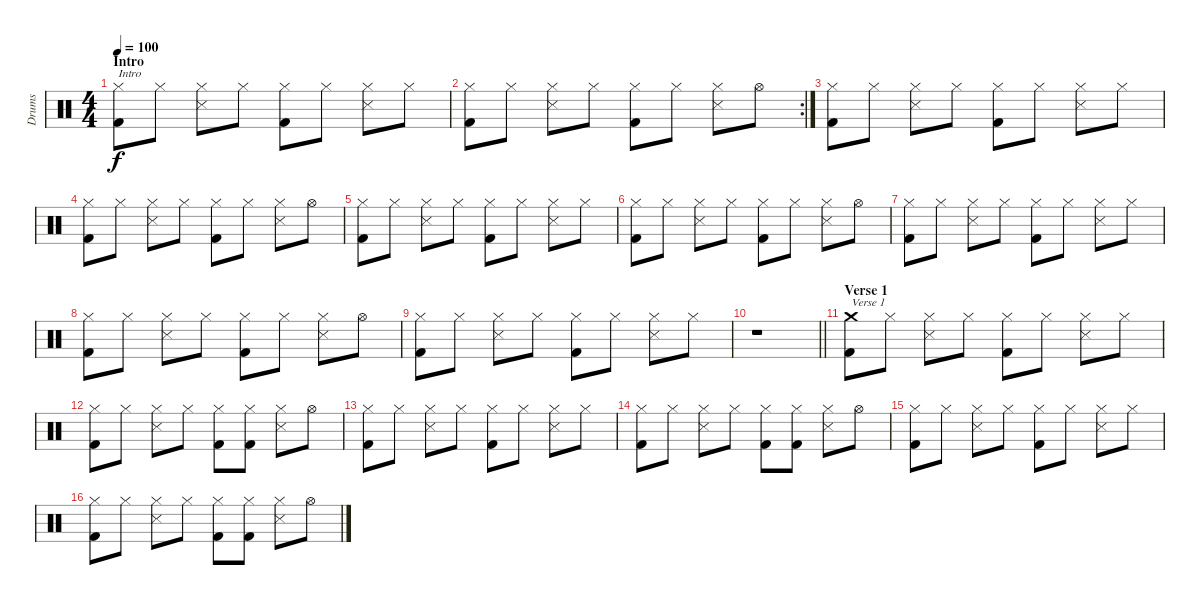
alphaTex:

\track ("Drums" "Drums") {instrument percussion}
\staff {score}
\articulation defaults
\ts (4 4)
\section ("" "Intro ")
\tempo 100
\clef neutral
\ks c
("Kick (hit) 2" "Hi-Hat (closed)").8{txt "Intro" dy f} "Hi-Hat (closed)".8 ("Snare (side stick) 3" "Hi-Hat (closed)").8 "Hi-Hat (closed)".8 ("Kick (hit) 2" "Hi-Hat (closed)").8 "Hi-Hat (closed)".8 ("Snare (side stick) 3" "Hi-Hat (closed)").8 "Hi-Hat (closed)".8 |
\rc 2
("Kick (hit) 2" "Hi-Hat (closed)").8 "Hi-Hat (closed)".8 ("Snare (side stick) 3" "Hi-Hat (closed)").8 "Hi-Hat (closed)".8 ("Kick (hit) 2" "Hi-Hat (closed)").8 "Hi-Hat (closed)".8 ("Snare (side stick) 3" "Hi-Hat (closed)").8 "Hi-Hat (open)".8 |
("Kick (hit) 2" "Hi-Hat (closed)").8 "Hi-Hat (closed)".8 ("Snare (side stick) 3" "Hi-Hat (closed)").8 "Hi-Hat (closed)".8 ("Kick (hit) 2" "Hi-Hat (closed)").8 "Hi-Hat (closed)".8 ("Snare (side stick) 3" "Hi-Hat (closed)").8 "Hi-Hat (closed)".8 |
("Kick (hit) 2" "Hi-Hat (closed)").8 "Hi-Hat (closed)".8 ("Snare (side stick) 3" "Hi-Hat (closed)").8 "Hi-Hat (closed)".8 ("Kick (hit) 2" "Hi-Hat (closed)").8 "Hi-Hat (closed)".8 ("Snare (side stick) 3" "Hi-Hat (closed)").8 "Hi-Hat (open)".8 |
("Kick (hit) 2" "Hi-Hat (closed)").8 "Hi-Hat (closed)".8 ("Snare (side stick) 3" "Hi-Hat (closed)").8 "Hi-Hat (closed)".8 ("Kick (hit) 2" "Hi-Hat (closed)").8 "Hi-Hat (closed)".8 ("Snare (side stick) 3" "Hi-Hat (closed)").8 "Hi-Hat (closed)".8 |
("Kick (hit) 2" "Hi-Hat (closed)").8 "Hi-Hat (closed)".8 ("Snare (side stick) 3" "Hi-Hat (closed)").8 "Hi-Hat (closed)".8 ("Kick (hit) 2" "Hi-Hat (closed)").8 "Hi-Hat (closed)".8 ("Snare (side stick) 3" "Hi-Hat (closed)").8 "Hi-Hat (open)".8 |
("Kick (hit) 2" "Hi-Hat (closed)").8 "Hi-Hat (closed)".8 ("Snare (side stick) 3" "Hi-Hat (closed)").8 "Hi-Hat (closed)".8 ("Kick (hit) 2" "Hi-Hat (closed)").8 "Hi-Hat (closed)".8 ("Snare (side stick) 3" "Hi-Hat (closed)").8 "Hi-Hat (closed)".8 |
("Kick (hit) 2" "Hi-Hat (closed)").8 "Hi-Hat (closed)".8 ("Snare (side stick) 3" "Hi-Hat (closed)").8 "Hi-Hat (closed)".8 ("Kick (hit) 2" "Hi-Hat (closed)").8 "Hi-Hat (closed)".8 ("Snare (side stick) 3" "Hi-Hat (closed)").8 "Hi-Hat (open)".8 |
("Kick (hit) 2" "Hi-Hat (closed)").8 "Hi-Hat (closed)".8 ("Snare (side stick) 3" "Hi-Hat (closed)").8 "Hi-Hat (closed)".8 ("Kick (hit) 2" "Hi-Hat (closed)").8 "Hi-Hat (closed)".8 ("Snare (side stick) 3" "Hi-Hat (closed)").8 "Hi-Hat (closed)".8 |
\barLineRight lightlight
r.1 |
\section ("" "Verse 1")
("Kick (hit) 2" "Crash medium (hit)").8{txt "Verse 1"} "Hi-Hat (closed)".8 ("Snare (side stick) 3" "Hi-Hat (closed)").8 "Hi-Hat (closed)".8 ("Kick (hit) 2" "Hi-Hat (closed)").8 "Hi-Hat (closed)".8 ("Snare (side stick) 3" "Hi-Hat (closed)").8 "Hi-Hat (closed)".8 |
("Kick (hit) 2" "Hi-Hat (closed)").8 "Hi-Hat (closed)".8 ("Snare (side stick) 3" "Hi-Hat (closed)").8 "Hi-Hat (closed)".8 ("Kick (hit) 2" "Hi-Hat (closed)").8 ("Kick (hit) 2" "Hi-Hat (closed)").8 ("Snare (side stick) 3" "Hi-Hat (closed)").8 "Hi-Hat (open)".8 |
("Kick (hit) 2" "Hi-Hat (closed)").8 "Hi-Hat (closed)".8 ("Snare (side stick) 3" "Hi-Hat (closed)").8 "Hi-Hat (closed)".8 ("Kick (hit) 2" "Hi-Hat (closed)").8 "Hi-Hat (closed)".8 ("Snare (side stick) 3" "Hi-Hat (closed)").8 "Hi-Hat (closed)".8 |
("Kick (hit) 2" "Hi-Hat (closed)").8 "Hi-Hat (closed)".8 ("Snare (side stick) 3" "Hi-Hat (closed)").8 "Hi-Hat (closed)".8 ("Kick (hit) 2" "Hi-Hat (closed)").8 ("Kick (hit) 2" "Hi-Hat (closed)").8 ("Snare (side stick) 3" "Hi-Hat (closed)").8 "Hi-Hat (open)".8 |
("Kick (hit) 2" "Hi-Hat (closed)").8 "Hi-Hat (closed)".8 ("Snare (side stick) 3" "Hi-Hat (closed)").8 "Hi-Hat (closed)".8 ("Kick (hit) 2" "Hi-Hat (closed)").8 "Hi-Hat (closed)".8 ("Snare (side stick) 3" "Hi-Hat (closed)").8 "Hi-Hat (closed)".8 |
("Kick (hit) 2" "Hi-Hat (closed)").8 "Hi-Hat (closed)".8 ("Snare (side stick) 3" "Hi-Hat (closed)").8 "Hi-Hat (closed)".8 ("Kick (hit) 2" "Hi-Hat (closed)").8 ("Kick (hit) 2" "Hi-Hat (closed)").8 ("Snare (side stick) 3" "Hi-Hat (closed)").8 "Hi-Hat (open)".8
